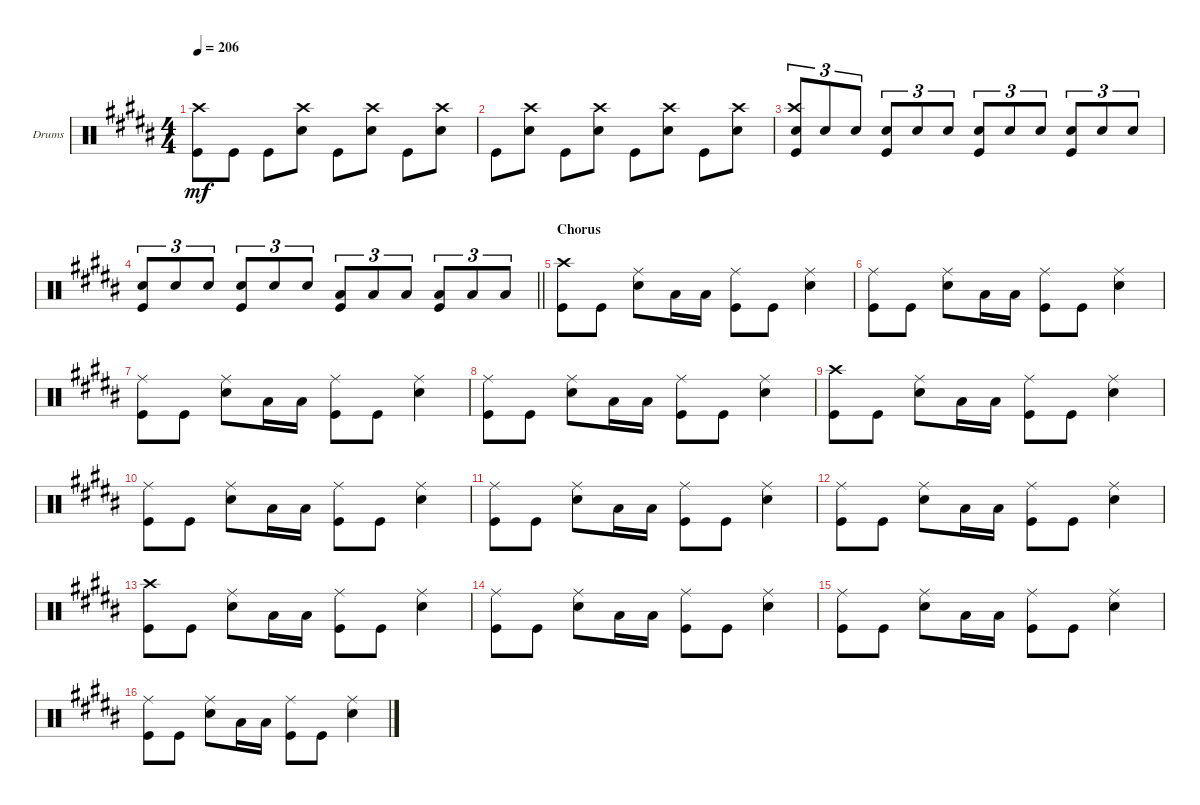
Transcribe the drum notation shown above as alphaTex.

\defaultSystemsLayout 4
\bracketExtendMode groupsimilarinstruments
\firstSystemTrackNameOrientation horizontal
\otherSystemsTrackNameOrientation horizontal
\track ("Drums" "Drums") {instrument percussion}
\staff {score}
\articulation defaults
\ts (4 4)
\tempo 206
\clef neutral
\ks b
("Kick (hit)" "Crash high (hit)").8{dy mf} "Kick (hit)".8 "Kick (hit)".8 ("Snare (hit) 2" "Crash high (hit)").8 "Kick (hit)".8 ("Snare (hit) 2" "Crash high (hit)").8 "Kick (hit)".8 ("Snare (hit) 2" "Crash high (hit)").8 |
"Kick (hit)".8 ("Snare (hit) 2" "Crash high (hit)").8 "Kick (hit)".8 ("Snare (hit) 2" "Crash high (hit)").8 "Kick (hit)".8 ("Snare (hit) 2" "Crash high (hit)").8 "Kick (hit)".8 ("Snare (hit) 2" "Crash high (hit)").8 |
("Snare (hit) 2" "Kick (hit)" "Crash high (hit)").8{tu (3 2)} "Snare (hit) 2".8{tu (3 2)} "Snare (hit) 2".8{tu (3 2)} ("Snare (hit) 2" "Kick (hit)").8{tu (3 2)} "Snare (hit) 2".8{tu (3 2)} "Snare (hit) 2".8{tu (3 2)} ("Snare (hit) 2" "Kick (hit)").8{tu (3 2)} "Snare (hit) 2".8{tu (3 2)} "Snare (hit) 2".8{tu (3 2)} ("Snare (hit) 2" "Kick (hit)").8{tu (3 2)} "Snare (hit) 2".8{tu (3 2)} "Snare (hit) 2".8{tu (3 2)} |
\barLineRight lightlight
("Snare (hit) 2" "Kick (hit)").8{tu (3 2)} "Snare (hit) 2".8{tu (3 2)} "Snare (hit) 2".8{tu (3 2)} ("Snare (hit) 2" "Kick (hit)").8{tu (3 2)} "Snare (hit) 2".8{tu (3 2)} "Snare (hit) 2".8{tu (3 2)} ("Low Tom (hit)" "Kick (hit)").8{tu (3 2)} "Low Tom (hit)".8{tu (3 2)} "Low Tom (hit)".8{tu (3 2)} ("Low Tom (hit)" "Kick (hit)").8{tu (3 2)} "Low Tom (hit)".8{tu (3 2)} "Low Tom (hit)".8{tu (3 2)} |
\section ("" "Chorus")
("Kick (hit)" "Crash high (hit)").8 "Kick (hit)".8 ("Snare (hit) 2" "Ride (middle)").8 "Low Tom (hit)".16 "Low Tom (hit)".16 ("Kick (hit)" "Ride (middle)").8 "Kick (hit)".8 ("Snare (hit) 2" "Ride (middle)").4 |
("Kick (hit)" "Ride (middle)").8 "Kick (hit)".8 ("Snare (hit) 2" "Ride (middle)").8 "Low Tom (hit)".16 "Low Tom (hit)".16 ("Kick (hit)" "Ride (middle)").8 "Kick (hit)".8 ("Snare (hit) 2" "Ride (middle)").4 |
("Kick (hit)" "Ride (middle)").8 "Kick (hit)".8 ("Snare (hit) 2" "Ride (middle)").8 "Low Tom (hit)".16 "Low Tom (hit)".16 ("Kick (hit)" "Ride (middle)").8 "Kick (hit)".8 ("Snare (hit) 2" "Ride (middle)").4 |
("Kick (hit)" "Ride (middle)").8 "Kick (hit)".8 ("Snare (hit) 2" "Ride (middle)").8 "Low Tom (hit)".16 "Low Tom (hit)".16 ("Kick (hit)" "Ride (middle)").8 "Kick (hit)".8 ("Snare (hit) 2" "Ride (middle)").4 |
("Kick (hit)" "Crash high (hit)").8 "Kick (hit)".8 ("Snare (hit) 2" "Ride (middle)").8 "Low Tom (hit)".16 "Low Tom (hit)".16 ("Kick (hit)" "Ride (middle)").8 "Kick (hit)".8 ("Snare (hit) 2" "Ride (middle)").4 |
("Kick (hit)" "Ride (middle)").8 "Kick (hit)".8 ("Snare (hit) 2" "Ride (middle)").8 "Low Tom (hit)".16 "Low Tom (hit)".16 ("Kick (hit)" "Ride (middle)").8 "Kick (hit)".8 ("Snare (hit) 2" "Ride (middle)").4 |
("Kick (hit)" "Ride (middle)").8 "Kick (hit)".8 ("Snare (hit) 2" "Ride (middle)").8 "Low Tom (hit)".16 "Low Tom (hit)".16 ("Kick (hit)" "Ride (middle)").8 "Kick (hit)".8 ("Snare (hit) 2" "Ride (middle)").4 |
("Kick (hit)" "Ride (middle)").8 "Kick (hit)".8 ("Snare (hit) 2" "Ride (middle)").8 "Low Tom (hit)".16 "Low Tom (hit)".16 ("Kick (hit)" "Ride (middle)").8 "Kick (hit)".8 ("Snare (hit) 2" "Ride (middle)").4 |
("Kick (hit)" "Crash high (hit)").8 "Kick (hit)".8 ("Snare (hit) 2" "Ride (middle)").8 "Low Tom (hit)".16 "Low Tom (hit)".16 ("Kick (hit)" "Ride (middle)").8 "Kick (hit)".8 ("Snare (hit) 2" "Ride (middle)").4 |
("Kick (hit)" "Ride (middle)").8 "Kick (hit)".8 ("Snare (hit) 2" "Ride (middle)").8 "Low Tom (hit)".16 "Low Tom (hit)".16 ("Kick (hit)" "Ride (middle)").8 "Kick (hit)".8 ("Snare (hit) 2" "Ride (middle)").4 |
("Kick (hit)" "Ride (middle)").8 "Kick (hit)".8 ("Snare (hit) 2" "Ride (middle)").8 "Low Tom (hit)".16 "Low Tom (hit)".16 ("Kick (hit)" "Ride (middle)").8 "Kick (hit)".8 ("Snare (hit) 2" "Ride (middle)").4 |
("Kick (hit)" "Ride (middle)").8 "Kick (hit)".8 ("Snare (hit) 2" "Ride (middle)").8 "Low Tom (hit)".16 "Low Tom (hit)".16 ("Kick (hit)" "Ride (middle)").8 "Kick (hit)".8 ("Snare (hit) 2" "Ride (middle)").4
